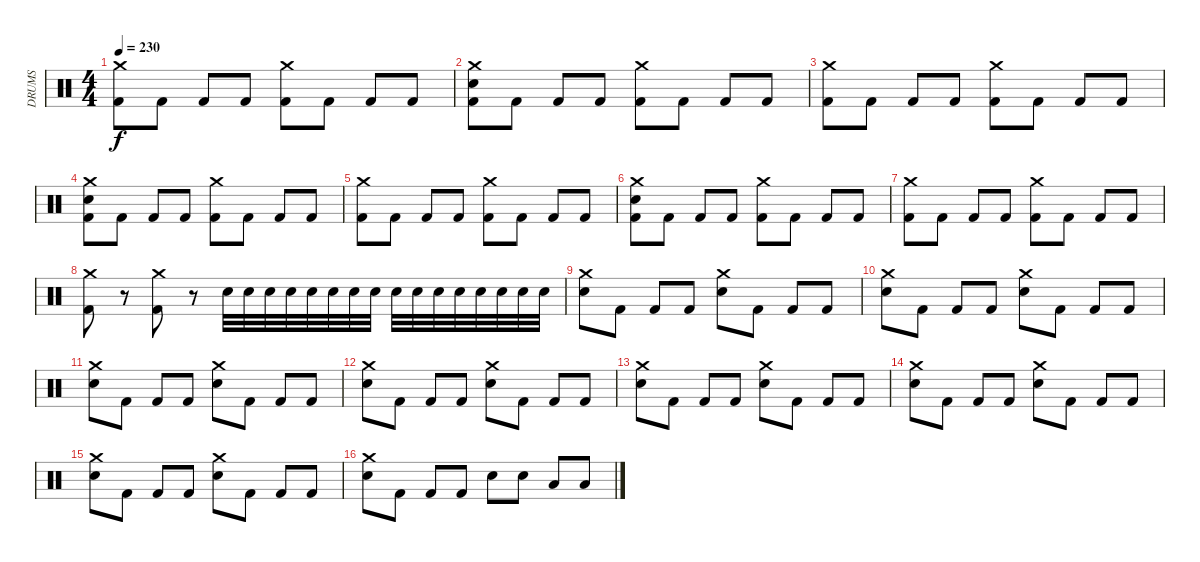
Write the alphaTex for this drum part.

\track ("DRUMS" "DRUMS") {instrument percussion}
\staff {score}
\articulation defaults
\ts (4 4)
\tempo 230
\clef neutral
\ks c
("Crash medium (hit)" "Kick (hit) 2").8{dy f} "Kick (hit) 2".8 "Kick (hit) 2".8 "Kick (hit) 2".8 ("Crash medium (hit)" "Kick (hit) 2").8 "Kick (hit) 2".8 "Kick (hit) 2".8 "Kick (hit) 2".8 |
("Crash medium (hit)" "Snare (hit) 2" "Kick (hit) 2").8 "Kick (hit) 2".8 "Kick (hit) 2".8 "Kick (hit) 2".8 ("Crash medium (hit)" "Kick (hit) 2").8 "Kick (hit) 2".8 "Kick (hit) 2".8 "Kick (hit) 2".8 |
("Crash medium (hit)" "Kick (hit) 2").8 "Kick (hit) 2".8 "Kick (hit) 2".8 "Kick (hit) 2".8 ("Crash medium (hit)" "Kick (hit) 2").8 "Kick (hit) 2".8 "Kick (hit) 2".8 "Kick (hit) 2".8 |
("Crash medium (hit)" "Snare (hit) 2" "Kick (hit) 2").8 "Kick (hit) 2".8 "Kick (hit) 2".8 "Kick (hit) 2".8 ("Crash medium (hit)" "Kick (hit) 2").8 "Kick (hit) 2".8 "Kick (hit) 2".8 "Kick (hit) 2".8 |
("Crash medium (hit)" "Kick (hit) 2").8 "Kick (hit) 2".8 "Kick (hit) 2".8 "Kick (hit) 2".8 ("Crash medium (hit)" "Kick (hit) 2").8 "Kick (hit) 2".8 "Kick (hit) 2".8 "Kick (hit) 2".8 |
("Crash medium (hit)" "Snare (hit) 2" "Kick (hit) 2").8 "Kick (hit) 2".8 "Kick (hit) 2".8 "Kick (hit) 2".8 ("Crash medium (hit)" "Kick (hit) 2").8 "Kick (hit) 2".8 "Kick (hit) 2".8 "Kick (hit) 2".8 |
("Crash medium (hit)" "Kick (hit) 2").8 "Kick (hit) 2".8 "Kick (hit) 2".8 "Kick (hit) 2".8 ("Crash medium (hit)" "Kick (hit) 2").8 "Kick (hit) 2".8 "Kick (hit) 2".8 "Kick (hit) 2".8 |
("Crash medium (hit)" "Kick (hit) 2").8 r.8 ("Crash medium (hit)" "Kick (hit) 2").8 r.8 "Snare (hit) 2".32 "Snare (hit) 2".32 "Snare (hit) 2".32 "Snare (hit) 2".32 "Snare (hit) 2".32 "Snare (hit) 2".32 "Snare (hit) 2".32 "Snare (hit) 2".32 "Snare (hit) 2".32 "Snare (hit) 2".32 "Snare (hit) 2".32 "Snare (hit) 2".32 "Snare (hit) 2".32 "Snare (hit) 2".32 "Snare (hit) 2".32 "Snare (hit) 2".32 |
("Crash medium (hit)" "Electric Snare (hit)").8 "Kick (hit) 2".8 "Kick (hit) 2".8 "Kick (hit) 2".8 ("Crash medium (hit)" "Electric Snare (hit)").8 "Kick (hit) 2".8 "Kick (hit) 2".8 "Kick (hit) 2".8 |
("Crash medium (hit)" "Electric Snare (hit)").8 "Kick (hit) 2".8 "Kick (hit) 2".8 "Kick (hit) 2".8 ("Crash medium (hit)" "Electric Snare (hit)").8 "Kick (hit) 2".8 "Kick (hit) 2".8 "Kick (hit) 2".8 |
("Crash medium (hit)" "Electric Snare (hit)").8 "Kick (hit) 2".8 "Kick (hit) 2".8 "Kick (hit) 2".8 ("Crash medium (hit)" "Electric Snare (hit)").8 "Kick (hit) 2".8 "Kick (hit) 2".8 "Kick (hit) 2".8 |
("Crash medium (hit)" "Electric Snare (hit)").8 "Kick (hit) 2".8 "Kick (hit) 2".8 "Kick (hit) 2".8 ("Crash medium (hit)" "Electric Snare (hit)").8 "Kick (hit) 2".8 "Kick (hit) 2".8 "Kick (hit) 2".8 |
("Crash medium (hit)" "Electric Snare (hit)").8 "Kick (hit) 2".8 "Kick (hit) 2".8 "Kick (hit) 2".8 ("Crash medium (hit)" "Electric Snare (hit)").8 "Kick (hit) 2".8 "Kick (hit) 2".8 "Kick (hit) 2".8 |
("Crash medium (hit)" "Electric Snare (hit)").8 "Kick (hit) 2".8 "Kick (hit) 2".8 "Kick (hit) 2".8 ("Crash medium (hit)" "Electric Snare (hit)").8 "Kick (hit) 2".8 "Kick (hit) 2".8 "Kick (hit) 2".8 |
("Crash medium (hit)" "Electric Snare (hit)").8 "Kick (hit) 2".8 "Kick (hit) 2".8 "Kick (hit) 2".8 ("Crash medium (hit)" "Electric Snare (hit)").8 "Kick (hit) 2".8 "Kick (hit) 2".8 "Kick (hit) 2".8 |
("Crash medium (hit)" "Electric Snare (hit)").8 "Kick (hit) 2".8 "Kick (hit) 2".8 "Kick (hit) 2".8 "Electric Snare (hit)".8 "Electric Snare (hit)".8 "Low Tom (hit)".8 "Low Tom (hit)".8
